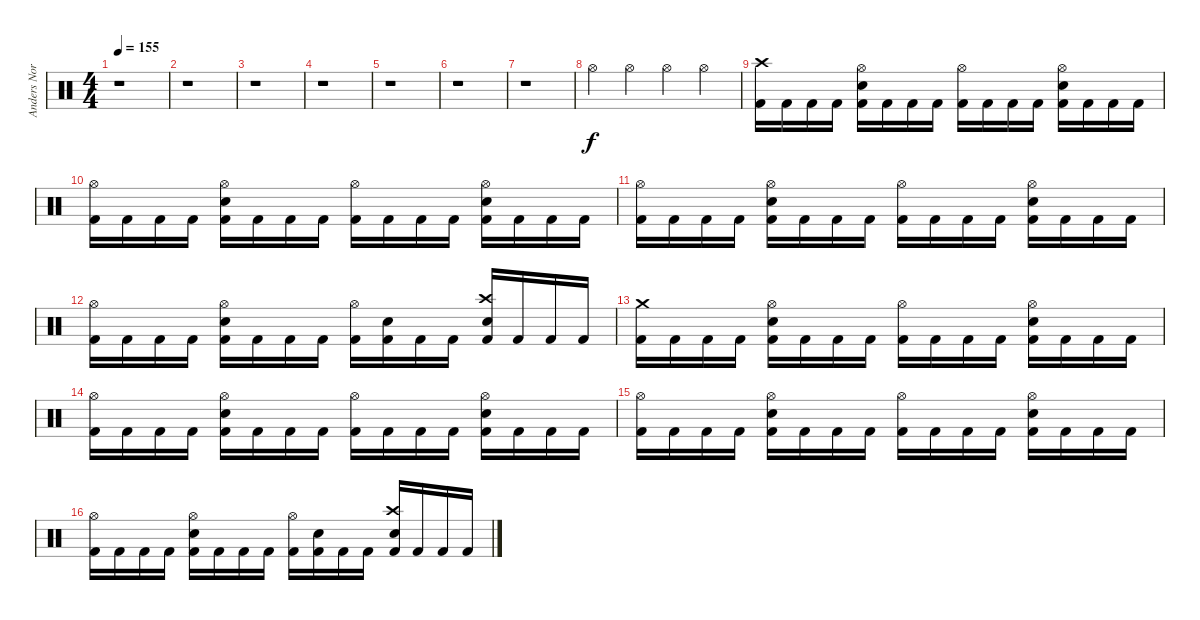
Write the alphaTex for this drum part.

\track ("Anders Nordin" "Anders Nor") {instrument percussion}
\staff {score}
\articulation defaults
\ts (4 4)
\tempo 155
\clef neutral
\ks c
r.1{dy f} |
r.1 |
r.1 |
r.1 |
r.1 |
r.1 |
r.1 |
"Hi-Hat (open)".4 "Hi-Hat (open)".4 "Hi-Hat (open)".4 "Hi-Hat (open)".4 |
("Kick (hit) 2" "Crash high (hit)").16 "Kick (hit) 2".16 "Kick (hit) 2".16 "Kick (hit) 2".16 ("Kick (hit) 2" "Electric Snare (hit)" "Hi-Hat (open)").16 "Kick (hit) 2".16 "Kick (hit) 2".16 "Kick (hit) 2".16 ("Kick (hit) 2" "Hi-Hat (open)").16 "Kick (hit) 2".16 "Kick (hit) 2".16 "Kick (hit) 2".16 ("Kick (hit) 2" "Electric Snare (hit)" "Hi-Hat (open)").16 "Kick (hit) 2".16 "Kick (hit) 2".16 "Kick (hit) 2".16 |
("Kick (hit) 2" "Hi-Hat (open)").16 "Kick (hit) 2".16 "Kick (hit) 2".16 "Kick (hit) 2".16 ("Kick (hit) 2" "Electric Snare (hit)" "Hi-Hat (open)").16 "Kick (hit) 2".16 "Kick (hit) 2".16 "Kick (hit) 2".16 ("Kick (hit) 2" "Hi-Hat (open)").16 "Kick (hit) 2".16 "Kick (hit) 2".16 "Kick (hit) 2".16 ("Kick (hit) 2" "Electric Snare (hit)" "Hi-Hat (open)").16 "Kick (hit) 2".16 "Kick (hit) 2".16 "Kick (hit) 2".16 |
("Kick (hit) 2" "Hi-Hat (open)").16 "Kick (hit) 2".16 "Kick (hit) 2".16 "Kick (hit) 2".16 ("Kick (hit) 2" "Electric Snare (hit)" "Hi-Hat (open)").16 "Kick (hit) 2".16 "Kick (hit) 2".16 "Kick (hit) 2".16 ("Kick (hit) 2" "Hi-Hat (open)").16 "Kick (hit) 2".16 "Kick (hit) 2".16 "Kick (hit) 2".16 ("Kick (hit) 2" "Electric Snare (hit)" "Hi-Hat (open)").16 "Kick (hit) 2".16 "Kick (hit) 2".16 "Kick (hit) 2".16 |
("Kick (hit) 2" "Hi-Hat (open)").16 "Kick (hit) 2".16 "Kick (hit) 2".16 "Kick (hit) 2".16 ("Kick (hit) 2" "Electric Snare (hit)" "Hi-Hat (open)").16 "Kick (hit) 2".16 "Kick (hit) 2".16 "Kick (hit) 2".16 ("Kick (hit) 2" "Hi-Hat (open)").16 ("Kick (hit) 2" "Electric Snare (hit)").16 "Kick (hit) 2".16 "Kick (hit) 2".16 ("Kick (hit) 2" "Electric Snare (hit)" "Crash high (hit)").16 "Kick (hit) 2".16 "Kick (hit) 2".16 "Kick (hit) 2".16 |
("Kick (hit) 2" "Crash medium (hit)").16 "Kick (hit) 2".16 "Kick (hit) 2".16 "Kick (hit) 2".16 ("Kick (hit) 2" "Electric Snare (hit)" "Hi-Hat (open)").16 "Kick (hit) 2".16 "Kick (hit) 2".16 "Kick (hit) 2".16 ("Kick (hit) 2" "Hi-Hat (open)").16 "Kick (hit) 2".16 "Kick (hit) 2".16 "Kick (hit) 2".16 ("Kick (hit) 2" "Electric Snare (hit)" "Hi-Hat (open)").16 "Kick (hit) 2".16 "Kick (hit) 2".16 "Kick (hit) 2".16 |
("Kick (hit) 2" "Hi-Hat (open)").16 "Kick (hit) 2".16 "Kick (hit) 2".16 "Kick (hit) 2".16 ("Kick (hit) 2" "Electric Snare (hit)" "Hi-Hat (open)").16 "Kick (hit) 2".16 "Kick (hit) 2".16 "Kick (hit) 2".16 ("Kick (hit) 2" "Hi-Hat (open)").16 "Kick (hit) 2".16 "Kick (hit) 2".16 "Kick (hit) 2".16 ("Kick (hit) 2" "Electric Snare (hit)" "Hi-Hat (open)").16 "Kick (hit) 2".16 "Kick (hit) 2".16 "Kick (hit) 2".16 |
("Kick (hit) 2" "Hi-Hat (open)").16 "Kick (hit) 2".16 "Kick (hit) 2".16 "Kick (hit) 2".16 ("Kick (hit) 2" "Electric Snare (hit)" "Hi-Hat (open)").16 "Kick (hit) 2".16 "Kick (hit) 2".16 "Kick (hit) 2".16 ("Kick (hit) 2" "Hi-Hat (open)").16 "Kick (hit) 2".16 "Kick (hit) 2".16 "Kick (hit) 2".16 ("Kick (hit) 2" "Electric Snare (hit)" "Hi-Hat (open)").16 "Kick (hit) 2".16 "Kick (hit) 2".16 "Kick (hit) 2".16 |
("Kick (hit) 2" "Hi-Hat (open)").16 "Kick (hit) 2".16 "Kick (hit) 2".16 "Kick (hit) 2".16 ("Kick (hit) 2" "Electric Snare (hit)" "Hi-Hat (open)").16 "Kick (hit) 2".16 "Kick (hit) 2".16 "Kick (hit) 2".16 ("Kick (hit) 2" "Hi-Hat (open)").16 ("Kick (hit) 2" "Electric Snare (hit)").16 "Kick (hit) 2".16 "Kick (hit) 2".16 ("Kick (hit) 2" "Electric Snare (hit)" "Crash high (hit)").16 "Kick (hit) 2".16 "Kick (hit) 2".16 "Kick (hit) 2".16
